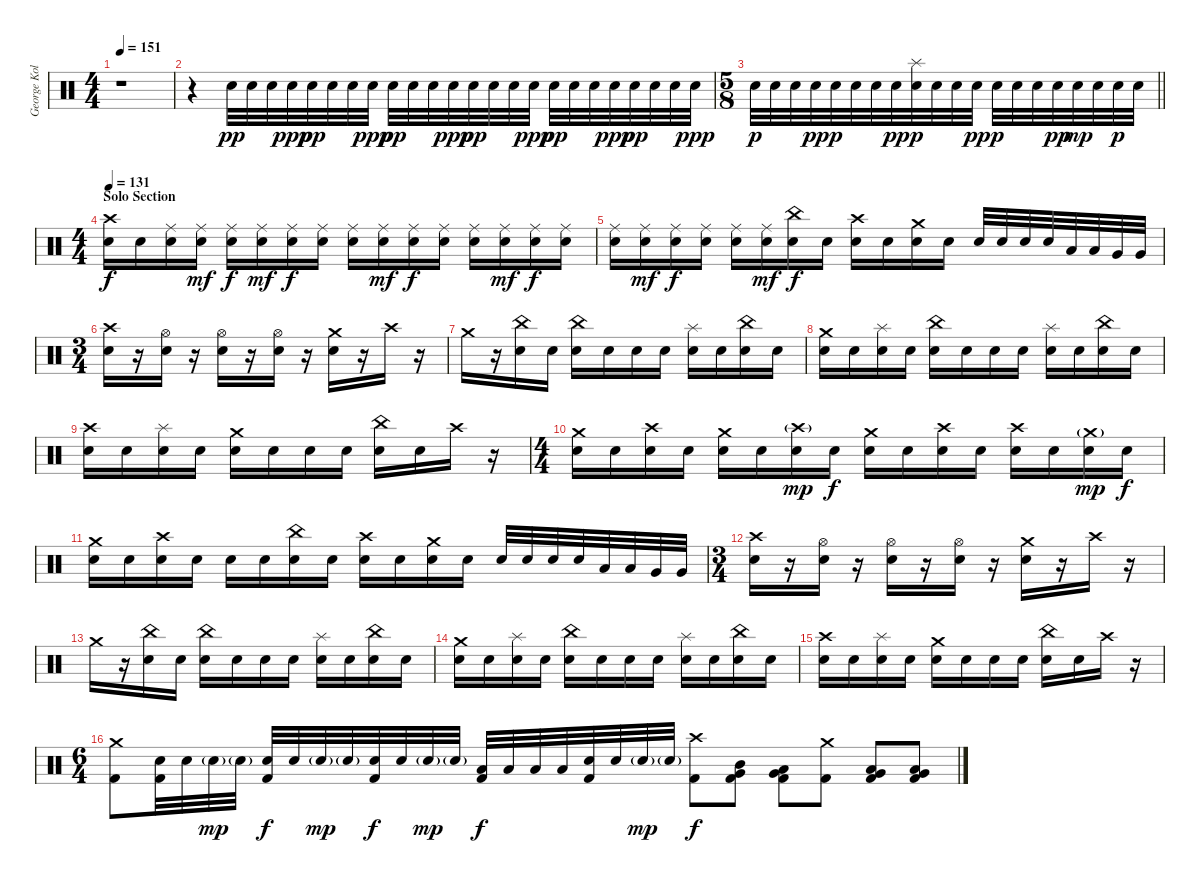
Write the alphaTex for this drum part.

\track ("George Kollias" "George Kol") {instrument percussion}
\staff {score}
\articulation defaults
\ts (4 4)
\tempo 151
\clef neutral
\ks c
r.1{dy mp} |
r.4 "Electric Snare (hit)".32{dy pp} "Electric Snare (hit)".32 "Electric Snare (hit)".32 "Electric Snare (hit)".32{dy ppp} "Electric Snare (hit)".32{dy pp} "Electric Snare (hit)".32 "Electric Snare (hit)".32 "Electric Snare (hit)".32{dy ppp} "Electric Snare (hit)".32{dy pp} "Electric Snare (hit)".32 "Electric Snare (hit)".32 "Electric Snare (hit)".32{dy ppp} "Electric Snare (hit)".32{dy pp} "Electric Snare (hit)".32 "Electric Snare (hit)".32 "Electric Snare (hit)".32{dy ppp} "Electric Snare (hit)".32{dy pp} "Electric Snare (hit)".32 "Electric Snare (hit)".32 "Electric Snare (hit)".32{dy ppp} "Electric Snare (hit)".32{dy pp} "Electric Snare (hit)".32 "Electric Snare (hit)".32 "Electric Snare (hit)".32{dy ppp} |
\ts (5 8)
\barLineRight lightlight "Electric Snare (hit)".32{dy p} "Electric Snare (hit)".32 "Electric Snare (hit)".32 "Electric Snare (hit)".32{dy pp} "Electric Snare (hit)".32{dy p} "Electric Snare (hit)".32 "Electric Snare (hit)".32 "Electric Snare (hit)".32{dy pp}
("Splash (hit)" "Electric Snare (hit)").32{dy p} "Electric Snare (hit)".32 "Electric Snare (hit)".32 "Electric Snare (hit)".32{dy pp} "Electric Snare (hit)".32{dy p} "Electric Snare (hit)".32 "Electric Snare (hit)".32 "Electric Snare (hit)".32{dy pp} "Electric Snare (hit)".32{dy mp} "Electric Snare (hit)".32 "Electric Snare (hit)".32{dy p} "Electric Snare (hit)".32 |
\ts (4 4)
\section ("" "Solo Section ")
\tempo 131
("Crash high (hit)" "Electric Snare (hit)").16{dy f} "Electric Snare (hit)".16 ("Ride (middle)" "Electric Snare (hit)").16 ("Ride (middle)" "Electric Snare (hit)").16{dy mf} ("Ride (middle)" "Electric Snare (hit)").16{dy f} ("Ride (middle)" "Electric Snare (hit)").16{dy mf} ("Ride (middle)" "Electric Snare (hit)").16{dy f} ("Ride (middle)" "Electric Snare (hit)").16 ("Ride (middle)" "Electric Snare (hit)").16 ("Ride (middle)" "Electric Snare (hit)").16{dy mf} ("Ride (middle)" "Electric Snare (hit)").16{dy f} ("Ride (middle)" "Electric Snare (hit)").16 ("Ride (middle)" "Electric Snare (hit)").16 ("Ride (middle)" "Electric Snare (hit)").16{dy mf} ("Ride (middle)" "Electric Snare (hit)").16{dy f} ("Ride (middle)" "Electric Snare (hit)").16 |
("Ride (middle)" "Electric Snare (hit)").16 ("Ride (middle)" "Electric Snare (hit)").16{dy mf} ("Ride (middle)" "Electric Snare (hit)").16{dy f} ("Ride (middle)" "Electric Snare (hit)").16 ("Ride (middle)" "Electric Snare (hit)").16 ("Ride (middle)" "Electric Snare (hit)").16{dy mf} ("China (hit)" "Electric Snare (hit)").16{dy f} "Electric Snare (hit)".16 ("Crash high (hit)" "Electric Snare (hit)").16 "Electric Snare (hit)".16 ("Crash medium (hit)" "Electric Snare (hit)").16 "Electric Snare (hit)".16 "Electric Snare (hit)".32 "Electric Snare (hit)".32 "Electric Snare (hit)".32 "Electric Snare (hit)".32 "Low Tom (hit)".32 "Low Tom (hit)".32 "Very Low Tom (hit)".32 "Very Low Tom (hit)".32 |
\ts (3 4)
("Crash high (hit)" "Electric Snare (hit)").16 r.16 ("Hi-Hat (open)" "Electric Snare (hit)").16 r.16 ("Hi-Hat (open)" "Electric Snare (hit)").16 r.16 ("Hi-Hat (open)" "Electric Snare (hit)").16 r.16 ("Crash medium (hit)" "Electric Snare (hit)").16 r.16 "Crash high (hit)".16 r.16 |
"Crash medium (hit)".16 r.16 ("China (hit)" "Electric Snare (hit)").16 "Electric Snare (hit)".16 ("China (hit)" "Electric Snare (hit)").16 "Electric Snare (hit)".16 "Electric Snare (hit)".16 "Electric Snare (hit)".16 ("Splash (hit)" "Electric Snare (hit)").16 "Electric Snare (hit)".16 ("China (hit)" "Electric Snare (hit)").16 "Electric Snare (hit)".16 |
("Crash medium (hit)" "Electric Snare (hit)").16 "Electric Snare (hit)".16 ("Splash (hit)" "Electric Snare (hit)").16 "Electric Snare (hit)".16 ("China (hit)" "Electric Snare (hit)").16 "Electric Snare (hit)".16 "Electric Snare (hit)".16 "Electric Snare (hit)".16 ("Splash (hit)" "Electric Snare (hit)").16 "Electric Snare (hit)".16 ("China (hit)" "Electric Snare (hit)").16 "Electric Snare (hit)".16 |
("Crash high (hit)" "Electric Snare (hit)").16 "Electric Snare (hit)".16 ("Splash (hit)" "Electric Snare (hit)").16 "Electric Snare (hit)".16 ("Crash medium (hit)" "Electric Snare (hit)").16 "Electric Snare (hit)".16 "Electric Snare (hit)".16 "Electric Snare (hit)".16 ("China (hit)" "Electric Snare (hit)").16 "Electric Snare (hit)".16 "Crash high (hit)".16 r.16 |
\ts (4 4)
("Crash medium (hit)" "Electric Snare (hit)").16 "Electric Snare (hit)".16 ("Crash high (hit)" "Electric Snare (hit)").16 "Electric Snare (hit)".16 ("Crash medium (hit)" "Electric Snare (hit)").16 "Electric Snare (hit)".16 ("Crash high (hit)"{g} "Electric Snare (hit)").16{dy mp} "Electric Snare (hit)".16{dy f} ("Crash medium (hit)" "Electric Snare (hit)").16 "Electric Snare (hit)".16 ("Crash high (hit)" "Electric Snare (hit)").16 "Electric Snare (hit)".16 ("Crash high (hit)" "Electric Snare (hit)").16 "Electric Snare (hit)".16 ("Crash medium (hit)"{g} "Electric Snare (hit)").16{dy mp} "Electric Snare (hit)".16{dy f} |
("Crash medium (hit)" "Electric Snare (hit)").16 "Electric Snare (hit)".16 ("Crash high (hit)" "Electric Snare (hit)").16 "Electric Snare (hit)".16 "Electric Snare (hit)".16 "Electric Snare (hit)".16 ("China (hit)" "Electric Snare (hit)").16 "Electric Snare (hit)".16 ("Crash high (hit)" "Electric Snare (hit)").16 "Electric Snare (hit)".16 ("Crash medium (hit)" "Electric Snare (hit)").16 "Electric Snare (hit)".16 "Electric Snare (hit)".32 "Electric Snare (hit)".32 "Electric Snare (hit)".32 "Electric Snare (hit)".32 "Low Tom (hit)".32 "Low Tom (hit)".32 "Very Low Tom (hit)".32 "Very Low Tom (hit)".32 |
\ts (3 4)
("Crash high (hit)" "Electric Snare (hit)").16 r.16 ("Hi-Hat (open)" "Electric Snare (hit)").16 r.16 ("Hi-Hat (open)" "Electric Snare (hit)").16 r.16 ("Hi-Hat (open)" "Electric Snare (hit)").16 r.16 ("Crash medium (hit)" "Electric Snare (hit)").16 r.16 "Crash high (hit)".16 r.16 |
"Crash medium (hit)".16 r.16 ("China (hit)" "Electric Snare (hit)").16 "Electric Snare (hit)".16 ("China (hit)" "Electric Snare (hit)").16 "Electric Snare (hit)".16 "Electric Snare (hit)".16 "Electric Snare (hit)".16 ("Splash (hit)" "Electric Snare (hit)").16 "Electric Snare (hit)".16 ("China (hit)" "Electric Snare (hit)").16 "Electric Snare (hit)".16 |
("Crash medium (hit)" "Electric Snare (hit)").16 "Electric Snare (hit)".16 ("Splash (hit)" "Electric Snare (hit)").16 "Electric Snare (hit)".16 ("China (hit)" "Electric Snare (hit)").16 "Electric Snare (hit)".16 "Electric Snare (hit)".16 "Electric Snare (hit)".16 ("Splash (hit)" "Electric Snare (hit)").16 "Electric Snare (hit)".16 ("China (hit)" "Electric Snare (hit)").16 "Electric Snare (hit)".16 |
("Crash high (hit)" "Electric Snare (hit)").16 "Electric Snare (hit)".16 ("Splash (hit)" "Electric Snare (hit)").16 "Electric Snare (hit)".16 ("Crash medium (hit)" "Electric Snare (hit)").16 "Electric Snare (hit)".16 "Electric Snare (hit)".16 "Electric Snare (hit)".16 ("China (hit)" "Electric Snare (hit)").16 "Electric Snare (hit)".16 "Crash high (hit)".16 r.16 |
\ts (6 4)
("Crash medium (hit)" "Kick (hit) 2").8 ("Electric Snare (hit)" "Kick (hit) 2").32 "Electric Snare (hit)".32 "Electric Snare (hit)"{g}.32{dy mp} "Electric Snare (hit)"{g}.32 ("Electric Snare (hit)" "Kick (hit) 2").32{dy f} "Electric Snare (hit)".32 "Electric Snare (hit)"{g}.32{dy mp} "Electric Snare (hit)"{g}.32 ("Electric Snare (hit)" "Kick (hit) 2").32{dy f} "Electric Snare (hit)".32 "Electric Snare (hit)"{g}.32{dy mp} "Electric Snare (hit)"{g}.32 ("Low Tom (hit)" "Kick (hit) 2").32{dy f} "Low Tom (hit)".32 "Low Tom (hit)".32 "Low Tom (hit)".32 ("Electric Snare (hit)" "Kick (hit) 2").32 "Electric Snare (hit)".32 "Electric Snare (hit)"{g}.32{dy mp} "Electric Snare (hit)"{g}.32 ("Crash high (hit)" "Kick (hit) 2").8{dy f} ("Mid Tom (hit)" "Very Low Tom (hit)" "Kick (hit) 2").8 ("Low Tom (hit)" "Very Low Tom (hit)" "Kick (hit) 2").8 ("Crash medium (hit)" "Kick (hit) 2").8 ("Low Tom (hit)" "Very Low Tom (hit)" "Kick (hit) 2").8 ("Very Low Tom (hit)" "Low Floor Tom (hit)" "Kick (hit) 2").8
